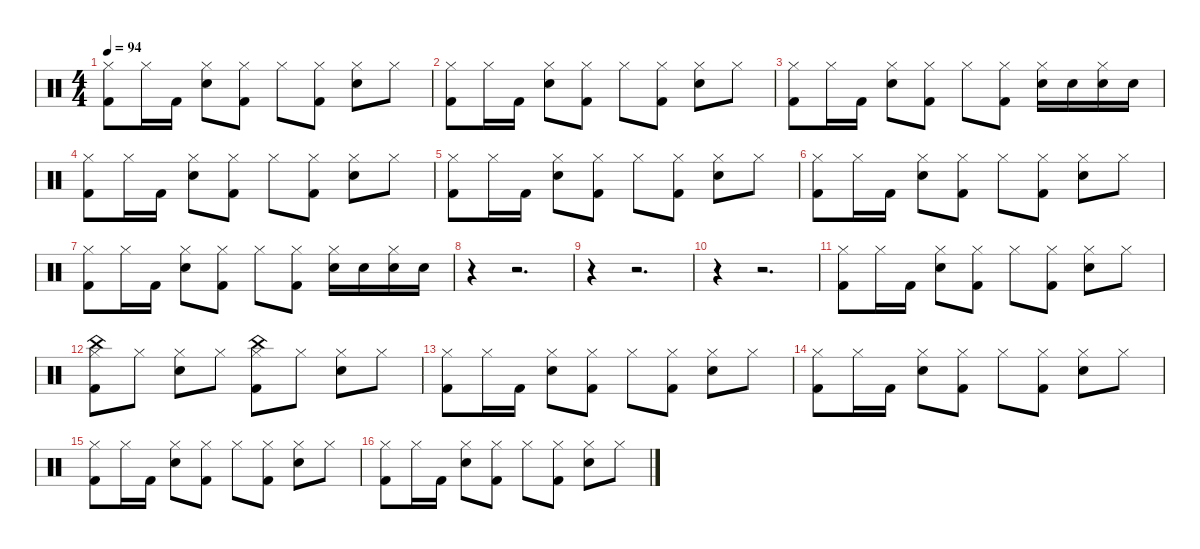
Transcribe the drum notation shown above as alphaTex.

\defaultSystemsLayout 4
\hideDynamics
\bracketExtendMode nobrackets
\singleTrackTrackNamePolicy hidden
\multiTrackTrackNamePolicy hidden
\otherSystemsTrackNameOrientation horizontal
\track ("Mike Joyce" "drm.") {instrument percussion}
\staff {score}
\articulation defaults
\ts (4 4)
\tempo 94
\clef neutral
\ks c
("Hi-Hat (closed)" "Kick (hit) 2").8{dy f} "Hi-Hat (closed)".16 "Kick (hit) 2".16 ("Hi-Hat (closed)" "Snare (hit) 2").8 ("Hi-Hat (closed)" "Kick (hit) 2").8 "Hi-Hat (closed)".8 ("Hi-Hat (closed)" "Kick (hit) 2").8 ("Hi-Hat (closed)" "Snare (hit) 2").8 "Hi-Hat (closed)".8 |
("Hi-Hat (closed)" "Kick (hit) 2").8 "Hi-Hat (closed)".16 "Kick (hit) 2".16 ("Hi-Hat (closed)" "Snare (hit) 2").8 ("Hi-Hat (closed)" "Kick (hit) 2").8 "Hi-Hat (closed)".8 ("Hi-Hat (closed)" "Kick (hit) 2").8 ("Hi-Hat (closed)" "Snare (hit) 2").8 "Hi-Hat (closed)".8 |
("Hi-Hat (closed)" "Kick (hit) 2").8 "Hi-Hat (closed)".16 "Kick (hit) 2".16 ("Hi-Hat (closed)" "Snare (hit) 2").8 ("Hi-Hat (closed)" "Kick (hit) 2").8 "Hi-Hat (closed)".8 ("Hi-Hat (closed)" "Kick (hit) 2").8 ("Hi-Hat (closed)" "Snare (hit) 2").16 "Snare (hit) 2".16 ("Hi-Hat (closed)" "Snare (hit) 2").16 "Snare (hit) 2".16 |
("Hi-Hat (closed)" "Kick (hit) 2").8 "Hi-Hat (closed)".16 "Kick (hit) 2".16 ("Hi-Hat (closed)" "Snare (hit) 2").8 ("Hi-Hat (closed)" "Kick (hit) 2").8 "Hi-Hat (closed)".8 ("Hi-Hat (closed)" "Kick (hit) 2").8 ("Hi-Hat (closed)" "Snare (hit) 2").8 "Hi-Hat (closed)".8 |
("Hi-Hat (closed)" "Kick (hit) 2").8 "Hi-Hat (closed)".16 "Kick (hit) 2".16 ("Hi-Hat (closed)" "Snare (hit) 2").8 ("Hi-Hat (closed)" "Kick (hit) 2").8 "Hi-Hat (closed)".8 ("Hi-Hat (closed)" "Kick (hit) 2").8 ("Hi-Hat (closed)" "Snare (hit) 2").8 "Hi-Hat (closed)".8 |
("Hi-Hat (closed)" "Kick (hit) 2").8 "Hi-Hat (closed)".16 "Kick (hit) 2".16 ("Hi-Hat (closed)" "Snare (hit) 2").8 ("Hi-Hat (closed)" "Kick (hit) 2").8 "Hi-Hat (closed)".8 ("Hi-Hat (closed)" "Kick (hit) 2").8 ("Hi-Hat (closed)" "Snare (hit) 2").8 "Hi-Hat (closed)".8 |
("Hi-Hat (closed)" "Kick (hit) 2").8 "Hi-Hat (closed)".16 "Kick (hit) 2".16 ("Hi-Hat (closed)" "Snare (hit) 2").8 ("Hi-Hat (closed)" "Kick (hit) 2").8 "Hi-Hat (closed)".8 ("Hi-Hat (closed)" "Kick (hit) 2").8 ("Hi-Hat (closed)" "Snare (hit) 2").16 "Snare (hit) 2".16 ("Hi-Hat (closed)" "Snare (hit) 2").16 "Snare (hit) 2".16 |
r.4 r.2{d} |
r.4 r.2{d} |
r.4 r.2{d} |
("Hi-Hat (closed)" "Kick (hit) 2").8 "Hi-Hat (closed)".16 "Kick (hit) 2".16 ("Hi-Hat (closed)" "Snare (hit) 2").8 ("Hi-Hat (closed)" "Kick (hit) 2").8 "Hi-Hat (closed)".8 ("Hi-Hat (closed)" "Kick (hit) 2").8 ("Hi-Hat (closed)" "Snare (hit) 2").8 "Hi-Hat (closed)".8 |
("China (hit)" "Hi-Hat (closed)" "Kick (hit) 2").8{dy pp} "Hi-Hat (closed)".8{dy f} ("Hi-Hat (closed)" "Snare (hit) 2").8 "Hi-Hat (closed)".8 ("China (hit)" "Hi-Hat (closed)" "Kick (hit) 2").8{dy pp} "Hi-Hat (closed)".8{dy f} ("Hi-Hat (closed)" "Snare (hit) 2").8 "Hi-Hat (closed)".8 |
("Hi-Hat (closed)" "Kick (hit) 2").8 "Hi-Hat (closed)".16 "Kick (hit) 2".16 ("Hi-Hat (closed)" "Snare (hit) 2").8 ("Hi-Hat (closed)" "Kick (hit) 2").8 "Hi-Hat (closed)".8 ("Hi-Hat (closed)" "Kick (hit) 2").8 ("Hi-Hat (closed)" "Snare (hit) 2").8 "Hi-Hat (closed)".8 |
("Hi-Hat (closed)" "Kick (hit) 2").8 "Hi-Hat (closed)".16 "Kick (hit) 2".16 ("Hi-Hat (closed)" "Snare (hit) 2").8 ("Hi-Hat (closed)" "Kick (hit) 2").8 "Hi-Hat (closed)".8 ("Hi-Hat (closed)" "Kick (hit) 2").8 ("Hi-Hat (closed)" "Snare (hit) 2").8 "Hi-Hat (closed)".8 |
("Hi-Hat (closed)" "Kick (hit) 2").8 "Hi-Hat (closed)".16 "Kick (hit) 2".16 ("Hi-Hat (closed)" "Snare (hit) 2").8 ("Hi-Hat (closed)" "Kick (hit) 2").8 "Hi-Hat (closed)".8 ("Hi-Hat (closed)" "Kick (hit) 2").8 ("Hi-Hat (closed)" "Snare (hit) 2").8 "Hi-Hat (closed)".8 |
("Hi-Hat (closed)" "Kick (hit) 2").8 "Hi-Hat (closed)".16 "Kick (hit) 2".16 ("Hi-Hat (closed)" "Snare (hit) 2").8 ("Hi-Hat (closed)" "Kick (hit) 2").8 "Hi-Hat (closed)".8 ("Hi-Hat (closed)" "Kick (hit) 2").8 ("Hi-Hat (closed)" "Snare (hit) 2").8 "Hi-Hat (closed)".8
